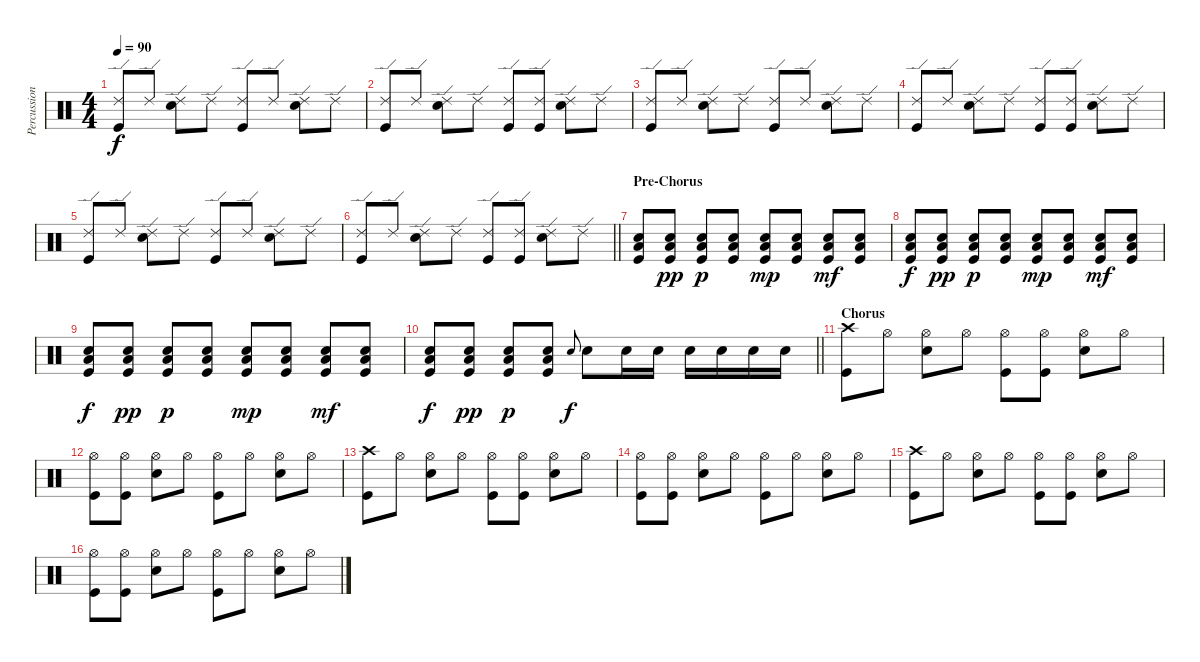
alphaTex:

\track ("Percussion" "Percussion") {instrument percussion}
\staff {score}
\articulation defaults
\ts (4 4)
\tempo 90
\clef neutral
\ks c
("Ride (edge) 2" "Kick (hit)").8{dy f} "Ride (edge) 2".8 ("Ride (edge) 2" "Snare (hit) 2").8 "Ride (edge) 2".8 ("Ride (edge) 2" "Kick (hit)").8 "Ride (edge) 2".8 ("Ride (edge) 2" "Snare (hit) 2").8 "Ride (edge) 2".8 |
("Ride (edge) 2" "Kick (hit)").8 "Ride (edge) 2".8 ("Ride (edge) 2" "Snare (hit) 2").8 "Ride (edge) 2".8 ("Ride (edge) 2" "Kick (hit)").8 ("Ride (edge) 2" "Kick (hit)").8 ("Ride (edge) 2" "Snare (hit) 2").8 "Ride (edge) 2".8 |
("Ride (edge) 2" "Kick (hit)").8 "Ride (edge) 2".8 ("Ride (edge) 2" "Snare (hit) 2").8 "Ride (edge) 2".8 ("Ride (edge) 2" "Kick (hit)").8 "Ride (edge) 2".8 ("Ride (edge) 2" "Snare (hit) 2").8 "Ride (edge) 2".8 |
("Ride (edge) 2" "Kick (hit)").8 "Ride (edge) 2".8 ("Ride (edge) 2" "Snare (hit) 2").8 "Ride (edge) 2".8 ("Ride (edge) 2" "Kick (hit)").8 ("Ride (edge) 2" "Kick (hit)").8 ("Ride (edge) 2" "Snare (hit) 2").8 "Ride (edge) 2".8 |
("Ride (edge) 2" "Kick (hit)").8 "Ride (edge) 2".8 ("Ride (edge) 2" "Snare (hit) 2").8 "Ride (edge) 2".8 ("Ride (edge) 2" "Kick (hit)").8 "Ride (edge) 2".8 ("Ride (edge) 2" "Snare (hit) 2").8 "Ride (edge) 2".8 |
\barLineRight lightlight
("Ride (edge) 2" "Kick (hit)").8 "Ride (edge) 2".8 ("Ride (edge) 2" "Snare (hit) 2").8 "Ride (edge) 2".8 ("Ride (edge) 2" "Kick (hit)").8 ("Ride (edge) 2" "Kick (hit)").8 ("Ride (edge) 2" "Snare (hit) 2").8 "Ride (edge) 2".8 |
\section ("" "Pre-Chorus")
("Snare (hit) 2" "Low Floor Tom (hit)" "Kick (hit)").8 ("Snare (hit) 2" "Low Floor Tom (hit)" "Kick (hit)").8{dy pp} ("Snare (hit) 2" "Low Floor Tom (hit)" "Kick (hit)").8{dy p} ("Snare (hit) 2" "Low Floor Tom (hit)" "Kick (hit)").8 ("Snare (hit) 2" "Low Floor Tom (hit)" "Kick (hit)").8{dy mp} ("Snare (hit) 2" "Low Floor Tom (hit)" "Kick (hit)").8 ("Snare (hit) 2" "Low Floor Tom (hit)" "Kick (hit)").8{dy mf} ("Snare (hit) 2" "Low Floor Tom (hit)" "Kick (hit)").8 |
("Snare (hit) 2" "Low Floor Tom (hit)" "Kick (hit)").8{dy f} ("Snare (hit) 2" "Low Floor Tom (hit)" "Kick (hit)").8{dy pp} ("Snare (hit) 2" "Low Floor Tom (hit)" "Kick (hit)").8{dy p} ("Snare (hit) 2" "Low Floor Tom (hit)" "Kick (hit)").8 ("Snare (hit) 2" "Low Floor Tom (hit)" "Kick (hit)").8{dy mp} ("Snare (hit) 2" "Low Floor Tom (hit)" "Kick (hit)").8 ("Snare (hit) 2" "Low Floor Tom (hit)" "Kick (hit)").8{dy mf} ("Snare (hit) 2" "Low Floor Tom (hit)" "Kick (hit)").8 |
("Snare (hit) 2" "Low Floor Tom (hit)" "Kick (hit)").8{dy f} ("Snare (hit) 2" "Low Floor Tom (hit)" "Kick (hit)").8{dy pp} ("Snare (hit) 2" "Low Floor Tom (hit)" "Kick (hit)").8{dy p} ("Snare (hit) 2" "Low Floor Tom (hit)" "Kick (hit)").8 ("Snare (hit) 2" "Low Floor Tom (hit)" "Kick (hit)").8{dy mp} ("Snare (hit) 2" "Low Floor Tom (hit)" "Kick (hit)").8 ("Snare (hit) 2" "Low Floor Tom (hit)" "Kick (hit)").8{dy mf} ("Snare (hit) 2" "Low Floor Tom (hit)" "Kick (hit)").8 |
\barLineRight lightlight
("Snare (hit) 2" "Low Floor Tom (hit)" "Kick (hit)").8{dy f} ("Snare (hit) 2" "Low Floor Tom (hit)" "Kick (hit)").8{dy pp} ("Snare (hit) 2" "Low Floor Tom (hit)" "Kick (hit)").8{dy p} ("Snare (hit) 2" "Low Floor Tom (hit)" "Kick (hit)").8 "Snare (hit) 2".8{gr onbeat dy f} "Snare (hit) 2".8 "Snare (hit) 2".16 "Snare (hit) 2".16 "Snare (hit) 2".16 "Snare (hit) 2".16 "Snare (hit) 2".16 "Snare (hit) 2".16 |
\section ("" "Chorus")
("Crash high (hit)" "Kick (hit)").8 "Hi-Hat (open)".8 ("Hi-Hat (open)" "Snare (hit) 2").8 "Hi-Hat (open)".8 ("Hi-Hat (open)" "Kick (hit)").8 ("Hi-Hat (open)" "Kick (hit)").8 ("Hi-Hat (open)" "Snare (hit) 2").8 "Hi-Hat (open)".8 |
("Hi-Hat (open)" "Kick (hit)").8 ("Hi-Hat (open)" "Kick (hit)").8 ("Hi-Hat (open)" "Snare (hit) 2").8 "Hi-Hat (open)".8 ("Hi-Hat (open)" "Kick (hit)").8 "Hi-Hat (open)".8 ("Hi-Hat (open)" "Snare (hit) 2").8 "Hi-Hat (open)".8 |
("Crash high (hit)" "Kick (hit)").8 "Hi-Hat (open)".8 ("Hi-Hat (open)" "Snare (hit) 2").8 "Hi-Hat (open)".8 ("Hi-Hat (open)" "Kick (hit)").8 ("Hi-Hat (open)" "Kick (hit)").8 ("Hi-Hat (open)" "Snare (hit) 2").8 "Hi-Hat (open)".8 |
("Hi-Hat (open)" "Kick (hit)").8 ("Hi-Hat (open)" "Kick (hit)").8 ("Hi-Hat (open)" "Snare (hit) 2").8 "Hi-Hat (open)".8 ("Hi-Hat (open)" "Kick (hit)").8 "Hi-Hat (open)".8 ("Hi-Hat (open)" "Snare (hit) 2").8 "Hi-Hat (open)".8 |
("Crash high (hit)" "Kick (hit)").8 "Hi-Hat (open)".8 ("Hi-Hat (open)" "Snare (hit) 2").8 "Hi-Hat (open)".8 ("Hi-Hat (open)" "Kick (hit)").8 ("Hi-Hat (open)" "Kick (hit)").8 ("Hi-Hat (open)" "Snare (hit) 2").8 "Hi-Hat (open)".8 |
("Hi-Hat (open)" "Kick (hit)").8 ("Hi-Hat (open)" "Kick (hit)").8 ("Hi-Hat (open)" "Snare (hit) 2").8 "Hi-Hat (open)".8 ("Hi-Hat (open)" "Kick (hit)").8 "Hi-Hat (open)".8 ("Hi-Hat (open)" "Snare (hit) 2").8 "Hi-Hat (open)".8
